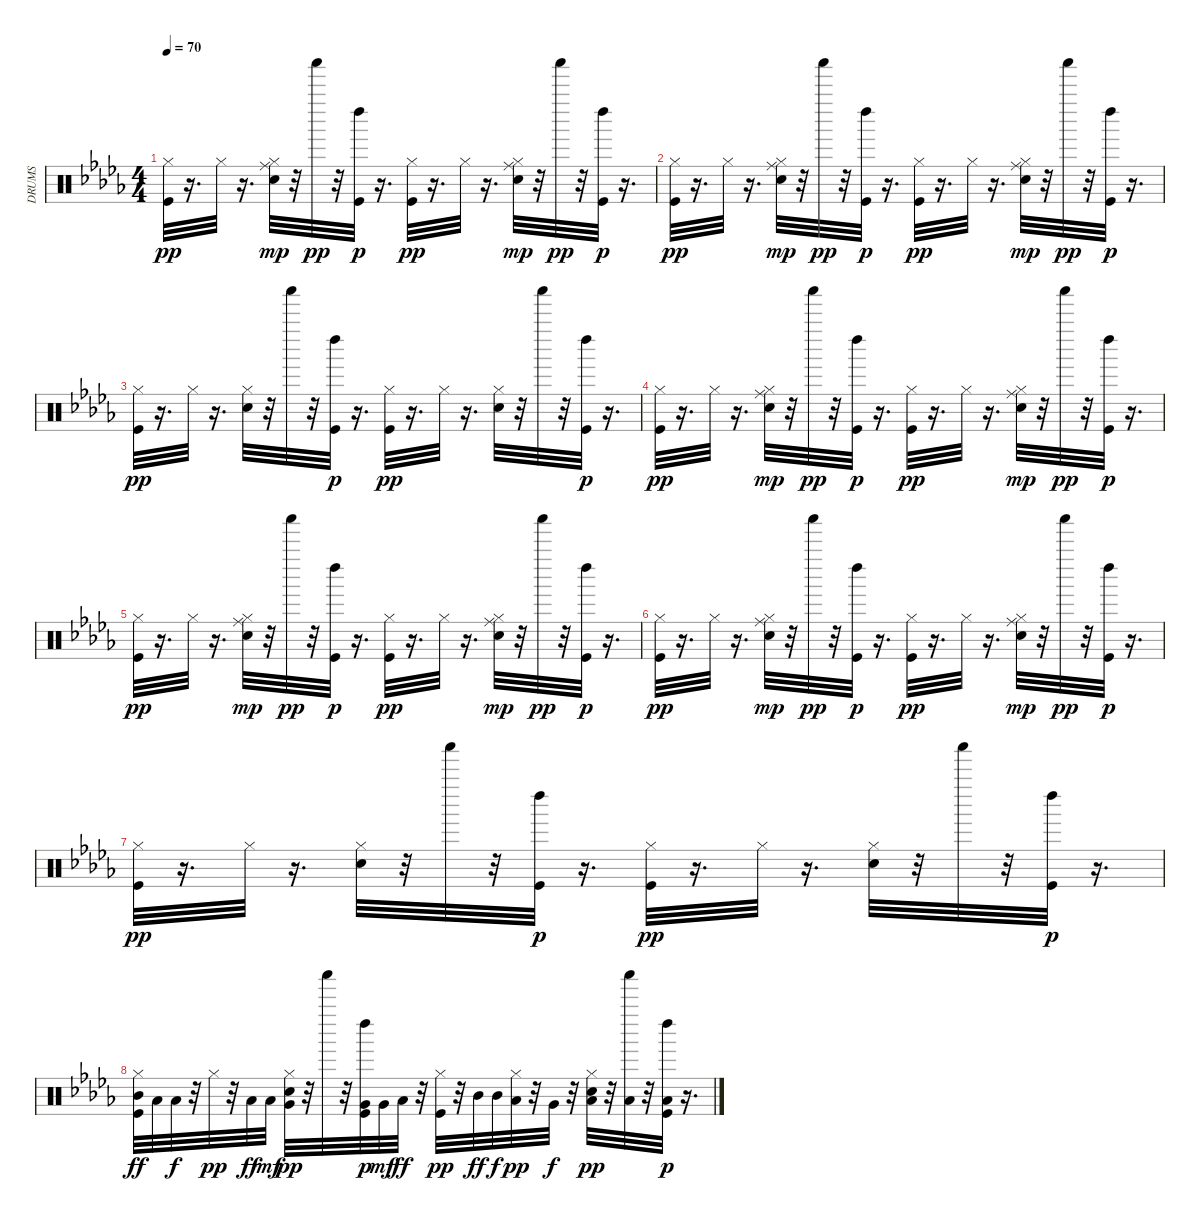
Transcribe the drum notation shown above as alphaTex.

\track ("DRUMS" "DRUMS") {instrument percussion}
\staff {score}
\articulation defaults
\ts (4 4)
\tempo 70
\clef neutral
\ks bbminor
("Kick (hit)" "Hi-Hat (closed)").32{dy pp} r.16{d} "Hi-Hat (closed)".32 r.16{d} ("Electric Snare (hit)" "Hi-Hat (closed)" "Ride (middle)").32{dy mp} r.32 "Shaker (hit)".32{dy pp} r.32 ("Kick (hit)" "Left Maraca (hit)").32{dy p} r.16{d} ("Kick (hit)" "Hi-Hat (closed)").32{dy pp} r.16{d} "Hi-Hat (closed)".32 r.16{d} ("Electric Snare (hit)" "Hi-Hat (closed)" "Ride (middle)").32{dy mp} r.32 "Shaker (hit)".32{dy pp} r.32 ("Kick (hit)" "Left Maraca (hit)").32{dy p} r.16{d} |
("Kick (hit)" "Hi-Hat (closed)").32{dy pp} r.16{d} "Hi-Hat (closed)".32 r.16{d} ("Electric Snare (hit)" "Hi-Hat (closed)" "Ride (middle)").32{dy mp} r.32 "Shaker (hit)".32{dy pp} r.32 ("Kick (hit)" "Left Maraca (hit)").32{dy p} r.16{d} ("Kick (hit)" "Hi-Hat (closed)").32{dy pp} r.16{d} "Hi-Hat (closed)".32 r.16{d} ("Electric Snare (hit)" "Hi-Hat (closed)" "Ride (middle)").32{dy mp} r.32 "Shaker (hit)".32{dy pp} r.32 ("Kick (hit)" "Left Maraca (hit)").32{dy p} r.16{d} |
("Kick (hit)" "Hi-Hat (closed)").32{dy pp} r.16{d} "Hi-Hat (closed)".32 r.16{d} ("Electric Snare (hit)" "Hi-Hat (closed)").32 r.32 "Shaker (hit)".32 r.32 ("Kick (hit)" "Left Maraca (hit)").32{dy p} r.16{d} ("Kick (hit)" "Hi-Hat (closed)").32{dy pp} r.16{d} "Hi-Hat (closed)".32 r.16{d} ("Electric Snare (hit)" "Hi-Hat (closed)").32 r.32 "Shaker (hit)".32 r.32 ("Kick (hit)" "Left Maraca (hit)").32{dy p} r.16{d} |
("Kick (hit)" "Hi-Hat (closed)").32{dy pp} r.16{d} "Hi-Hat (closed)".32 r.16{d} ("Electric Snare (hit)" "Hi-Hat (closed)" "Ride (middle)").32{dy mp} r.32 "Shaker (hit)".32{dy pp} r.32 ("Kick (hit)" "Left Maraca (hit)").32{dy p} r.16{d} ("Kick (hit)" "Hi-Hat (closed)").32{dy pp} r.16{d} "Hi-Hat (closed)".32 r.16{d} ("Electric Snare (hit)" "Hi-Hat (closed)" "Ride (middle)").32{dy mp} r.32 "Shaker (hit)".32{dy pp} r.32 ("Kick (hit)" "Left Maraca (hit)").32{dy p} r.16{d} |
("Kick (hit)" "Hi-Hat (closed)").32{dy pp} r.16{d} "Hi-Hat (closed)".32 r.16{d} ("Electric Snare (hit)" "Hi-Hat (closed)" "Ride (middle)").32{dy mp} r.32 "Shaker (hit)".32{dy pp} r.32 ("Kick (hit)" "Left Maraca (hit)").32{dy p} r.16{d} ("Kick (hit)" "Hi-Hat (closed)").32{dy pp} r.16{d} "Hi-Hat (closed)".32 r.16{d} ("Electric Snare (hit)" "Hi-Hat (closed)" "Ride (middle)").32{dy mp} r.32 "Shaker (hit)".32{dy pp} r.32 ("Kick (hit)" "Left Maraca (hit)").32{dy p} r.16{d} |
("Kick (hit)" "Hi-Hat (closed)").32{dy pp} r.16{d} "Hi-Hat (closed)".32 r.16{d} ("Electric Snare (hit)" "Hi-Hat (closed)" "Ride (middle)").32{dy mp} r.32 "Shaker (hit)".32{dy pp} r.32 ("Kick (hit)" "Left Maraca (hit)").32{dy p} r.16{d} ("Kick (hit)" "Hi-Hat (closed)").32{dy pp} r.16{d} "Hi-Hat (closed)".32 r.16{d} ("Electric Snare (hit)" "Hi-Hat (closed)" "Ride (middle)").32{dy mp} r.32 "Shaker (hit)".32{dy pp} r.32 ("Kick (hit)" "Left Maraca (hit)").32{dy p} r.16{d} |
("Kick (hit)" "Hi-Hat (closed)").32{dy pp} r.16{d} "Hi-Hat (closed)".32 r.16{d} ("Electric Snare (hit)" "Hi-Hat (closed)").32 r.32 "Shaker (hit)".32 r.32 ("Kick (hit)" "Left Maraca (hit)").32{dy p} r.16{d} ("Kick (hit)" "Hi-Hat (closed)").32{dy pp} r.16{d} "Hi-Hat (closed)".32 r.16{d} ("Electric Snare (hit)" "Hi-Hat (closed)").32 r.32 "Shaker (hit)".32 r.32 ("Kick (hit)" "Left Maraca (hit)").32{dy p} r.16{d} |
("Kick (hit)" "Hi-Hat (closed)" "Mid Tom (hit)").32{dy ff} "Low Tom (hit)".32 "Low Tom (hit)".32{dy f} r.32 "Hi-Hat (closed)".32{dy pp} r.32 "Low Tom (hit)".32{dy ff} "Low Tom (hit)".32{dy mf} ("Electric Snare (hit)" "Hi-Hat (closed)" "Very Low Tom (hit)").32{dy pp} r.32 "Shaker (hit)".32 r.32 ("Kick (hit)" "Very Low Tom (hit)" "Left Maraca (hit)").32{dy p} "Very Low Tom (hit)".32{dy mf} "Low Floor Tom (hit)".32{dy ff} r.32 ("Kick (hit)" "Hi-Hat (closed)").32{dy pp} r.32 "Mid Tom (hit)".32{dy ff} "Mid Tom (hit)".32{dy f} ("Hi-Hat (closed)" "Low Tom (hit)").32{dy pp} r.32 "Very Low Tom (hit)".32{dy f} r.32 ("Electric Snare (hit)" "Hi-Hat (closed)" "Low Tom (hit)").32{dy pp} r.32 ("Low Floor Tom (hit)" "Shaker (hit)").32 r.32 ("Kick (hit)" "Low Floor Tom (hit)" "Left Maraca (hit)").32{dy p} r.16{d}
